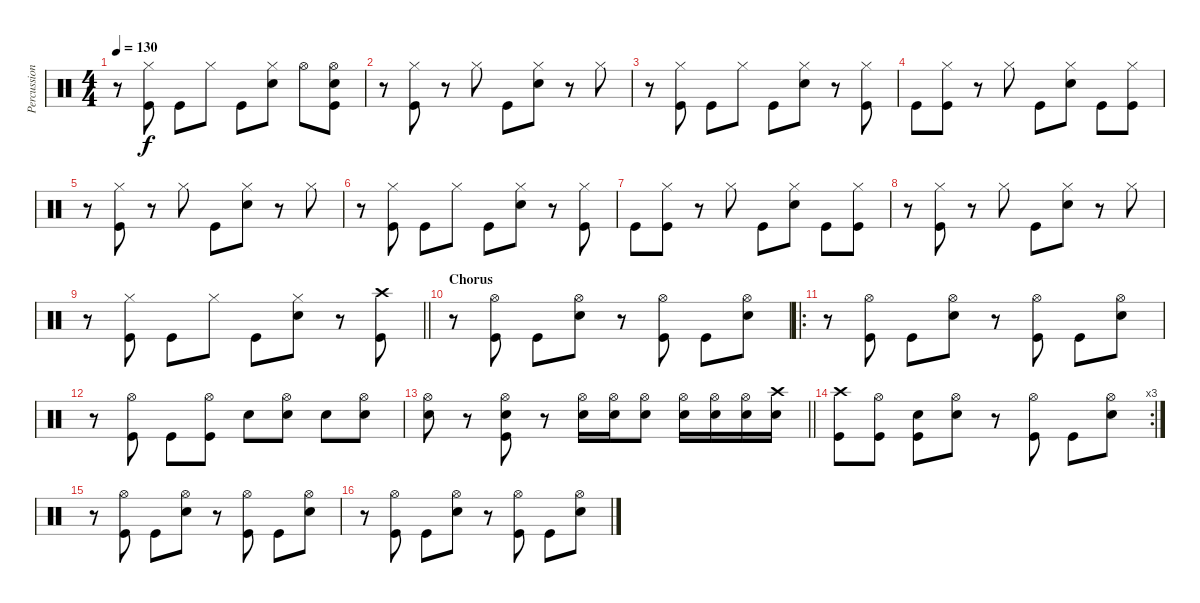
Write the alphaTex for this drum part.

\track ("Percussion" "Percussion") {instrument percussion}
\staff {score}
\articulation defaults
\ts (4 4)
\tempo 130
\clef neutral
\ks c
r.8{dy f} ("Hi-Hat (closed)" "Kick (hit)").8 "Kick (hit)".8 "Hi-Hat (closed)".8 "Kick (hit)".8 ("Hi-Hat (closed)" "Snare (hit) 2").8 "Hi-Hat (open)".8 ("Hi-Hat (open)" "Snare (hit) 2" "Kick (hit)").8 |
r.8 ("Hi-Hat (closed)" "Kick (hit)").8 r.8 "Hi-Hat (closed)".8 "Kick (hit)".8 ("Hi-Hat (closed)" "Snare (hit) 2").8 r.8 "Hi-Hat (closed)".8 |
r.8 ("Hi-Hat (closed)" "Kick (hit)").8 "Kick (hit)".8 "Hi-Hat (closed)".8 "Kick (hit)".8 ("Hi-Hat (closed)" "Snare (hit) 2").8 r.8 ("Hi-Hat (closed)" "Kick (hit)").8 |
"Kick (hit)".8 ("Hi-Hat (closed)" "Kick (hit)").8 r.8 "Hi-Hat (closed)".8 "Kick (hit)".8 ("Hi-Hat (closed)" "Snare (hit) 2").8 "Kick (hit)".8 ("Hi-Hat (closed)" "Kick (hit)").8 |
r.8 ("Hi-Hat (closed)" "Kick (hit)").8 r.8 "Hi-Hat (closed)".8 "Kick (hit)".8 ("Hi-Hat (closed)" "Snare (hit) 2").8 r.8 "Hi-Hat (closed)".8 |
r.8 ("Hi-Hat (closed)" "Kick (hit)").8 "Kick (hit)".8 "Hi-Hat (closed)".8 "Kick (hit)".8 ("Hi-Hat (closed)" "Snare (hit) 2").8 r.8 ("Hi-Hat (closed)" "Kick (hit)").8 |
"Kick (hit)".8 ("Hi-Hat (closed)" "Kick (hit)").8 r.8 "Hi-Hat (closed)".8 "Kick (hit)".8 ("Hi-Hat (closed)" "Snare (hit) 2").8 "Kick (hit)".8 ("Hi-Hat (closed)" "Kick (hit)").8 |
r.8 ("Hi-Hat (closed)" "Kick (hit)").8 r.8 "Hi-Hat (closed)".8 "Kick (hit)".8 ("Hi-Hat (closed)" "Snare (hit) 2").8 r.8 "Hi-Hat (closed)".8 |
\barLineRight lightlight
r.8 ("Hi-Hat (closed)" "Kick (hit)").8 "Kick (hit)".8 "Hi-Hat (closed)".8 "Kick (hit)".8 ("Hi-Hat (closed)" "Snare (hit) 2").8 r.8 ("Crash high (hit)" "Kick (hit)").8 |
\section ("" "Chorus")
r.8 ("Hi-Hat (open)" "Kick (hit)").8 "Kick (hit)".8 ("Hi-Hat (open)" "Snare (hit) 2").8 r.8 ("Hi-Hat (open)" "Kick (hit)").8 "Kick (hit)".8 ("Hi-Hat (open)" "Snare (hit) 2").8 |
\ro
r.8 ("Hi-Hat (open)" "Kick (hit)").8 "Kick (hit)".8 ("Hi-Hat (open)" "Snare (hit) 2").8 r.8 ("Hi-Hat (open)" "Kick (hit)").8 "Kick (hit)".8 ("Hi-Hat (open)" "Snare (hit) 2").8 |
r.8 ("Hi-Hat (open)" "Kick (hit)").8 "Kick (hit)".8 ("Hi-Hat (open)" "Kick (hit)").8 "Snare (hit) 2".8 ("Hi-Hat (open)" "Snare (hit) 2").8 "Snare (hit) 2".8 ("Hi-Hat (open)" "Snare (hit) 2").8 |
\barLineRight lightlight
("Hi-Hat (open)" "Snare (hit) 2").8 r.8 ("Hi-Hat (open)" "Snare (hit) 2" "Kick (hit)").8 r.8 ("Hi-Hat (open)" "Snare (hit) 2").16 ("Hi-Hat (open)" "Snare (hit) 2").16 ("Hi-Hat (open)" "Snare (hit) 2").8 ("Hi-Hat (open)" "Snare (hit) 2").16 ("Hi-Hat (open)" "Snare (hit) 2").16 ("Hi-Hat (open)" "Snare (hit) 2").16 ("Crash high (hit)" "Snare (hit) 2").16 |
\rc 3
("Crash high (hit)" "Kick (hit)").8 ("Hi-Hat (open)" "Kick (hit)").8 ("Snare (hit) 2" "Kick (hit)").8 ("Hi-Hat (open)" "Snare (hit) 2").8 r.8 ("Hi-Hat (open)" "Kick (hit)").8 "Kick (hit)".8 ("Hi-Hat (open)" "Snare (hit) 2").8 |
r.8 ("Hi-Hat (open)" "Kick (hit)").8 "Kick (hit)".8 ("Hi-Hat (open)" "Snare (hit) 2").8 r.8 ("Hi-Hat (open)" "Kick (hit)").8 "Kick (hit)".8 ("Hi-Hat (open)" "Snare (hit) 2").8 |
r.8 ("Hi-Hat (open)" "Kick (hit)").8 "Kick (hit)".8 ("Hi-Hat (open)" "Snare (hit) 2").8 r.8 ("Hi-Hat (open)" "Kick (hit)").8 "Kick (hit)".8 ("Hi-Hat (open)" "Snare (hit) 2").8
